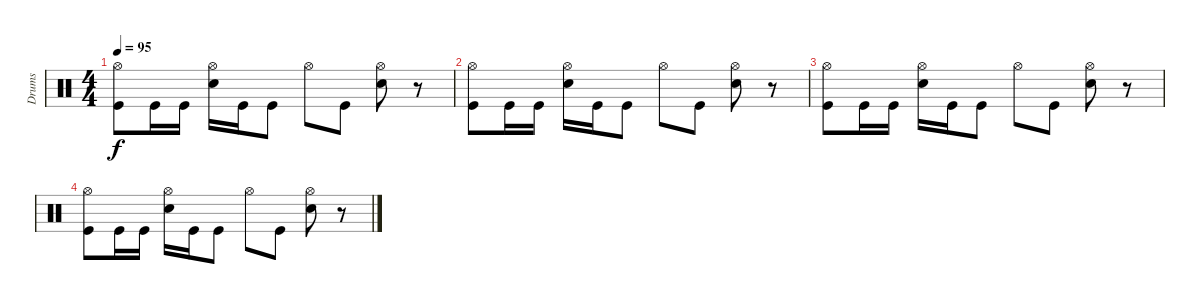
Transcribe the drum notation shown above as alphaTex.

\track ("Drums" "Drums") {instrument percussion}
\staff {score}
\articulation defaults
\ts (4 4)
\tempo 95
\clef neutral
\ks c
("Kick (hit)" "Hi-Hat (open)").8{dy f} "Kick (hit)".16 "Kick (hit)".16 ("Snare (hit) 2" "Hi-Hat (open)").16 "Kick (hit)".16 "Kick (hit)".8 "Hi-Hat (open)".8 "Kick (hit)".8 ("Snare (hit) 2" "Hi-Hat (open)").8 r.8 |
("Kick (hit)" "Hi-Hat (open)").8 "Kick (hit)".16 "Kick (hit)".16 ("Snare (hit) 2" "Hi-Hat (open)").16 "Kick (hit)".16 "Kick (hit)".8 "Hi-Hat (open)".8 "Kick (hit)".8 ("Snare (hit) 2" "Hi-Hat (open)").8 r.8 |
("Kick (hit)" "Hi-Hat (open)").8 "Kick (hit)".16 "Kick (hit)".16 ("Snare (hit) 2" "Hi-Hat (open)").16 "Kick (hit)".16 "Kick (hit)".8 "Hi-Hat (open)".8 "Kick (hit)".8 ("Snare (hit) 2" "Hi-Hat (open)").8 r.8 |
("Kick (hit)" "Hi-Hat (open)").8 "Kick (hit)".16 "Kick (hit)".16 ("Snare (hit) 2" "Hi-Hat (open)").16 "Kick (hit)".16 "Kick (hit)".8 "Hi-Hat (open)".8 "Kick (hit)".8 ("Snare (hit) 2" "Hi-Hat (open)").8 r.8
